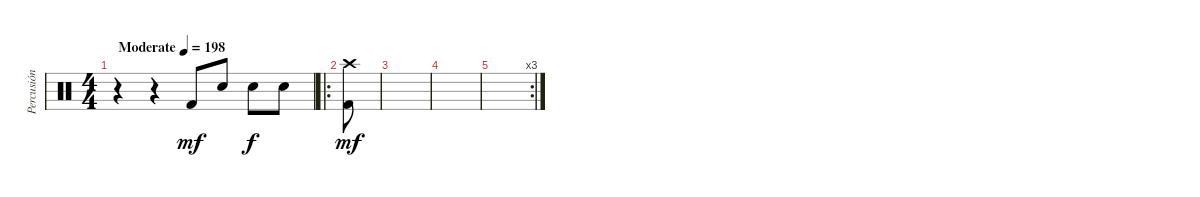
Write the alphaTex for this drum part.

\track ("Percusión" "Percusión") {instrument percussion}
\staff {score}
\articulation defaults
\ts (4 4)
\tempo (198 "Moderate")
\clef neutral
\ks c
r.4{dy mf} r.4 "Kick (hit) 2".8 "Snare (hit) 2".8 "Snare (hit) 2".8{dy f} "Snare (hit) 2".8 |
\ro
("Crash high (hit)" "Kick (hit) 2").8{dy mf} |
|
|
\rc 3
